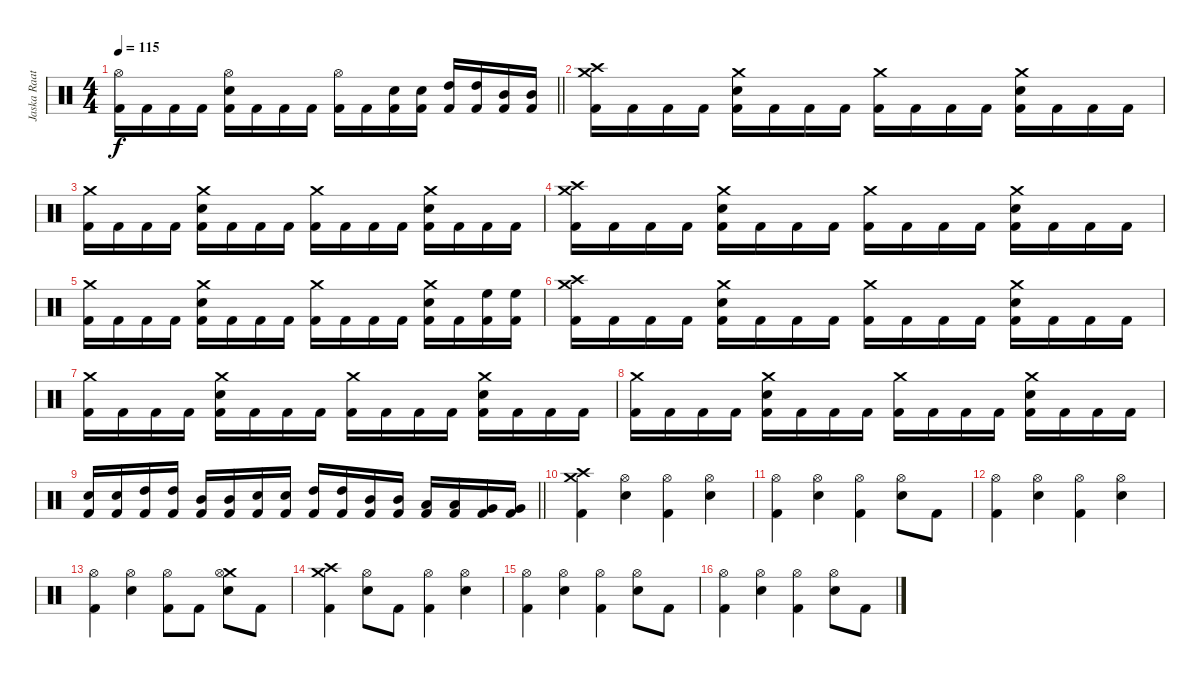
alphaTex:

\track ("Jaska Raatikainen" "Jaska Raat") {instrument percussion}
\staff {score}
\articulation defaults
\ts (4 4)
\tempo 115
\clef neutral
\barLineRight lightlight
\ks c
("Hi-Hat (open)" "Kick (hit) 2").16{dy f} "Kick (hit) 2".16 "Kick (hit) 2".16 "Kick (hit) 2".16 ("Hi-Hat (open)" "Electric Snare (hit)" "Kick (hit) 2").16 "Kick (hit) 2".16 "Kick (hit) 2".16 "Kick (hit) 2".16 ("Hi-Hat (open)" "Kick (hit) 2").16 "Kick (hit) 2".16 ("Electric Snare (hit)" "Kick (hit) 2").16 ("Electric Snare (hit)" "Kick (hit) 2").16 ("High Tom (hit)" "Kick (hit) 2").16 ("High Tom (hit)" "Kick (hit) 2").16 ("Mid Tom (hit)" "Kick (hit) 2").16 ("Mid Tom (hit)" "Kick (hit) 2").16 |
("Crash medium (hit)" "Crash high (hit)" "Kick (hit) 2").16 "Kick (hit) 2".16 "Kick (hit) 2".16 "Kick (hit) 2".16 ("Crash medium (hit)" "Electric Snare (hit)" "Kick (hit) 2").16 "Kick (hit) 2".16 "Kick (hit) 2".16 "Kick (hit) 2".16 ("Crash medium (hit)" "Kick (hit) 2").16 "Kick (hit) 2".16 "Kick (hit) 2".16 "Kick (hit) 2".16 ("Crash medium (hit)" "Electric Snare (hit)" "Kick (hit) 2").16 "Kick (hit) 2".16 "Kick (hit) 2".16 "Kick (hit) 2".16 |
("Crash medium (hit)" "Kick (hit) 2").16 "Kick (hit) 2".16 "Kick (hit) 2".16 "Kick (hit) 2".16 ("Crash medium (hit)" "Electric Snare (hit)" "Kick (hit) 2").16 "Kick (hit) 2".16 "Kick (hit) 2".16 "Kick (hit) 2".16 ("Crash medium (hit)" "Kick (hit) 2").16 "Kick (hit) 2".16 "Kick (hit) 2".16 "Kick (hit) 2".16 ("Crash medium (hit)" "Electric Snare (hit)" "Kick (hit) 2").16 "Kick (hit) 2".16 "Kick (hit) 2".16 "Kick (hit) 2".16 |
("Crash medium (hit)" "Crash high (hit)" "Kick (hit) 2").16 "Kick (hit) 2".16 "Kick (hit) 2".16 "Kick (hit) 2".16 ("Crash medium (hit)" "Electric Snare (hit)" "Kick (hit) 2").16 "Kick (hit) 2".16 "Kick (hit) 2".16 "Kick (hit) 2".16 ("Crash medium (hit)" "Kick (hit) 2").16 "Kick (hit) 2".16 "Kick (hit) 2".16 "Kick (hit) 2".16 ("Crash medium (hit)" "Electric Snare (hit)" "Kick (hit) 2").16 "Kick (hit) 2".16 "Kick (hit) 2".16 "Kick (hit) 2".16 |
("Crash medium (hit)" "Kick (hit) 2").16 "Kick (hit) 2".16 "Kick (hit) 2".16 "Kick (hit) 2".16 ("Crash medium (hit)" "Electric Snare (hit)" "Kick (hit) 2").16 "Kick (hit) 2".16 "Kick (hit) 2".16 "Kick (hit) 2".16 ("Crash medium (hit)" "Kick (hit) 2").16 "Kick (hit) 2".16 "Kick (hit) 2".16 "Kick (hit) 2".16 ("Crash medium (hit)" "Electric Snare (hit)" "Kick (hit) 2").16 "Kick (hit) 2".16 ("High Floor Tom (hit)" "Kick (hit) 2").16 ("High Floor Tom (hit)" "Kick (hit) 2").16 |
("Crash medium (hit)" "Crash high (hit)" "Kick (hit) 2").16 "Kick (hit) 2".16 "Kick (hit) 2".16 "Kick (hit) 2".16 ("Crash medium (hit)" "Electric Snare (hit)" "Kick (hit) 2").16 "Kick (hit) 2".16 "Kick (hit) 2".16 "Kick (hit) 2".16 ("Crash medium (hit)" "Kick (hit) 2").16 "Kick (hit) 2".16 "Kick (hit) 2".16 "Kick (hit) 2".16 ("Crash medium (hit)" "Electric Snare (hit)" "Kick (hit) 2").16 "Kick (hit) 2".16 "Kick (hit) 2".16 "Kick (hit) 2".16 |
("Crash medium (hit)" "Kick (hit) 2").16 "Kick (hit) 2".16 "Kick (hit) 2".16 "Kick (hit) 2".16 ("Crash medium (hit)" "Electric Snare (hit)" "Kick (hit) 2").16 "Kick (hit) 2".16 "Kick (hit) 2".16 "Kick (hit) 2".16 ("Crash medium (hit)" "Kick (hit) 2").16 "Kick (hit) 2".16 "Kick (hit) 2".16 "Kick (hit) 2".16 ("Crash medium (hit)" "Electric Snare (hit)" "Kick (hit) 2").16 "Kick (hit) 2".16 "Kick (hit) 2".16 "Kick (hit) 2".16 |
("Crash medium (hit)" "Kick (hit) 2").16 "Kick (hit) 2".16 "Kick (hit) 2".16 "Kick (hit) 2".16 ("Crash medium (hit)" "Electric Snare (hit)" "Kick (hit) 2").16 "Kick (hit) 2".16 "Kick (hit) 2".16 "Kick (hit) 2".16 ("Crash medium (hit)" "Kick (hit) 2").16 "Kick (hit) 2".16 "Kick (hit) 2".16 "Kick (hit) 2".16 ("Crash medium (hit)" "Electric Snare (hit)" "Kick (hit) 2").16 "Kick (hit) 2".16 "Kick (hit) 2".16 "Kick (hit) 2".16 |
\barLineRight lightlight
("Electric Snare (hit)" "Kick (hit) 2").16 ("Electric Snare (hit)" "Kick (hit) 2").16 ("High Tom (hit)" "Kick (hit) 2").16 ("High Tom (hit)" "Kick (hit) 2").16 ("Mid Tom (hit)" "Kick (hit) 2").16 ("Mid Tom (hit)" "Kick (hit) 2").16 ("Electric Snare (hit)" "Kick (hit) 2").16 ("Electric Snare (hit)" "Kick (hit) 2").16 ("High Tom (hit)" "Kick (hit) 2").16 ("High Tom (hit)" "Kick (hit) 2").16 ("Mid Tom (hit)" "Kick (hit) 2").16 ("Mid Tom (hit)" "Kick (hit) 2").16 ("Low Tom (hit)" "Kick (hit) 2").16 ("Low Tom (hit)" "Kick (hit) 2").16 ("Very Low Tom (hit)" "Kick (hit) 2").16 ("Very Low Tom (hit)" "Kick (hit) 2").16 |
("Crash high (hit)" "Crash medium (hit)" "Kick (hit) 2").4 ("Hi-Hat (open)" "Electric Snare (hit)").4 ("Hi-Hat (open)" "Kick (hit) 2").4 ("Hi-Hat (open)" "Electric Snare (hit)").4 |
("Hi-Hat (open)" "Kick (hit) 2").4 ("Hi-Hat (open)" "Electric Snare (hit)").4 ("Hi-Hat (open)" "Kick (hit) 2").4 ("Hi-Hat (open)" "Electric Snare (hit)").8 "Kick (hit) 2".8 |
("Hi-Hat (open)" "Kick (hit) 2").4 ("Hi-Hat (open)" "Electric Snare (hit)").4 ("Hi-Hat (open)" "Kick (hit) 2").4 ("Hi-Hat (open)" "Electric Snare (hit)").4 |
("Hi-Hat (open)" "Kick (hit) 2").4 ("Hi-Hat (open)" "Electric Snare (hit)").4 ("Hi-Hat (open)" "Kick (hit) 2").8 "Kick (hit) 2".8 ("Crash medium (hit)" "Hi-Hat (open)" "Electric Snare (hit)").8 "Kick (hit) 2".8 |
("Crash high (hit)" "Crash medium (hit)" "Kick (hit) 2").4 ("Hi-Hat (open)" "Electric Snare (hit)").8 "Kick (hit) 2".8 ("Hi-Hat (open)" "Kick (hit) 2").4 ("Hi-Hat (open)" "Electric Snare (hit)").4 |
("Hi-Hat (open)" "Kick (hit) 2").4 ("Hi-Hat (open)" "Electric Snare (hit)").4 ("Hi-Hat (open)" "Kick (hit) 2").4 ("Hi-Hat (open)" "Electric Snare (hit)").8 "Kick (hit) 2".8 |
("Hi-Hat (open)" "Kick (hit) 2").4 ("Hi-Hat (open)" "Electric Snare (hit)").4 ("Hi-Hat (open)" "Kick (hit) 2").4 ("Hi-Hat (open)" "Electric Snare (hit)").8 "Kick (hit) 2".8
